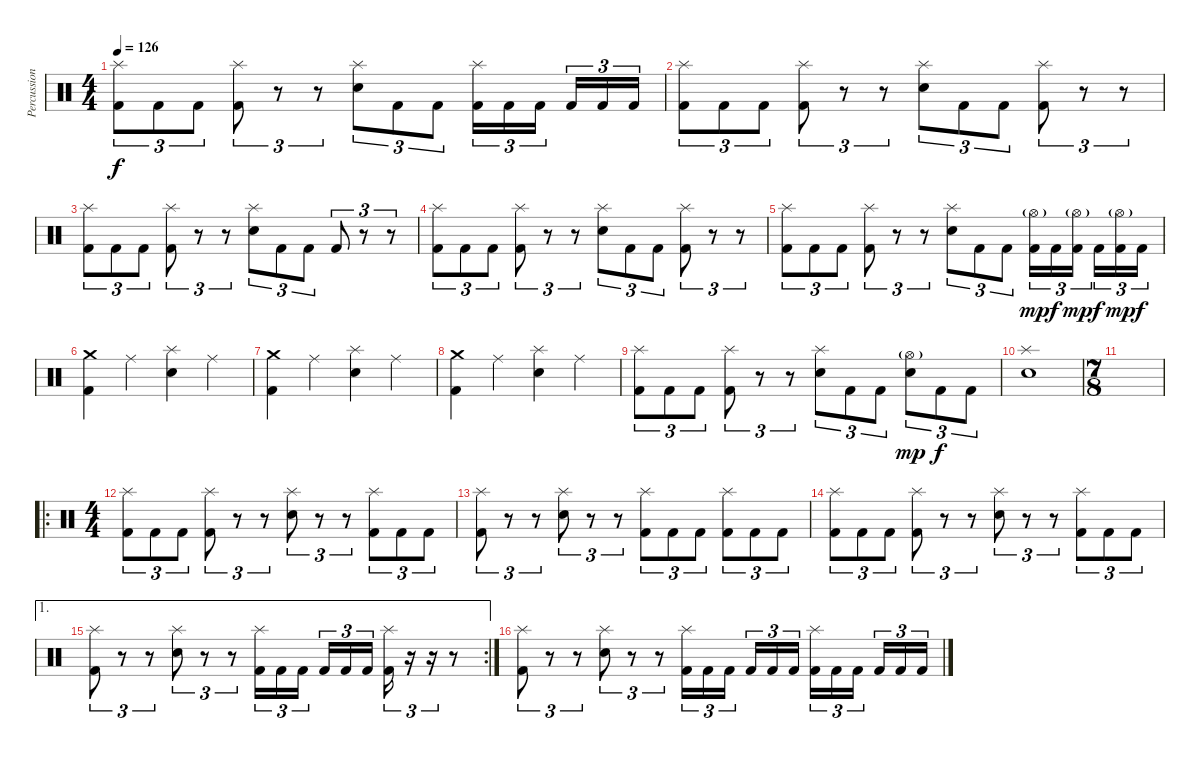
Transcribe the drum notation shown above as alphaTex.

\track ("Percussions" "Percussion") {instrument percussion}
\staff {score}
\articulation defaults
\ts (4 4)
\tempo 126
\clef neutral
\ks c
("Splash (hit)" "Kick (hit) 2").8{tu (3 2) dy f} "Kick (hit) 2".8{tu (3 2)} "Kick (hit) 2".8{tu (3 2)} ("Splash (hit)" "Kick (hit) 2").8{tu (3 2)} r.8{tu (3 2)} r.8{tu (3 2)} ("Splash (hit)" "Electric Snare (hit)").8{tu (3 2)} "Kick (hit) 2".8{tu (3 2)} "Kick (hit) 2".8{tu (3 2)} ("Splash (hit)" "Kick (hit) 2").16{tu (3 2)} "Kick (hit) 2".16{tu (3 2)} "Kick (hit) 2".16{tu (3 2)} "Kick (hit) 2".16{tu (3 2)} "Kick (hit) 2".16{tu (3 2)} "Kick (hit) 2".16{tu (3 2)} |
("Splash (hit)" "Kick (hit) 2").8{tu (3 2)} "Kick (hit) 2".8{tu (3 2)} "Kick (hit) 2".8{tu (3 2)} ("Splash (hit)" "Kick (hit) 2").8{tu (3 2)} r.8{tu (3 2)} r.8{tu (3 2)} ("Splash (hit)" "Electric Snare (hit)").8{tu (3 2)} "Kick (hit) 2".8{tu (3 2)} "Kick (hit) 2".8{tu (3 2)} ("Splash (hit)" "Kick (hit) 2").8{tu (3 2)} r.8{tu (3 2)} r.8{tu (3 2)} |
("Splash (hit)" "Kick (hit) 2").8{tu (3 2)} "Kick (hit) 2".8{tu (3 2)} "Kick (hit) 2".8{tu (3 2)} ("Splash (hit)" "Kick (hit) 2").8{tu (3 2)} r.8{tu (3 2)} r.8{tu (3 2)} ("Splash (hit)" "Electric Snare (hit)").8{tu (3 2)} "Kick (hit) 2".8{tu (3 2)} "Kick (hit) 2".8{tu (3 2)} "Kick (hit) 2".8{tu (3 2)} r.8{tu (3 2)} r.8{tu (3 2)} |
("Splash (hit)" "Kick (hit) 2").8{tu (3 2)} "Kick (hit) 2".8{tu (3 2)} "Kick (hit) 2".8{tu (3 2)} ("Splash (hit)" "Kick (hit) 2").8{tu (3 2)} r.8{tu (3 2)} r.8{tu (3 2)} ("Splash (hit)" "Electric Snare (hit)").8{tu (3 2)} "Kick (hit) 2".8{tu (3 2)} "Kick (hit) 2".8{tu (3 2)} ("Splash (hit)" "Kick (hit) 2").8{tu (3 2)} r.8{tu (3 2)} r.8{tu (3 2)} |
("Splash (hit)" "Kick (hit) 2").8{tu (3 2)} "Kick (hit) 2".8{tu (3 2)} "Kick (hit) 2".8{tu (3 2)} ("Splash (hit)" "Kick (hit) 2").8{tu (3 2)} r.8{tu (3 2)} r.8{tu (3 2)} ("Splash (hit)" "Electric Snare (hit)").8{tu (3 2)} "Kick (hit) 2".8{tu (3 2)} "Kick (hit) 2".8{tu (3 2)} ("Hi-Hat (open)"{g} "Kick (hit) 2").16{tu (3 2) dy mp} "Kick (hit) 2".16{tu (3 2) dy f} ("Hi-Hat (open)"{g} "Kick (hit) 2").16{tu (3 2) dy mp} "Kick (hit) 2".16{tu (3 2) dy f} ("Hi-Hat (open)"{g} "Kick (hit) 2").16{tu (3 2) dy mp} "Kick (hit) 2".16{tu (3 2) dy f} |
("Crash medium (hit)" "Kick (hit) 2").4 "Ride (middle)".4 ("Splash (hit)" "Electric Snare (hit)").4 "Ride (middle)".4 |
("Crash medium (hit)" "Kick (hit) 2").4 "Ride (middle)".4 ("Splash (hit)" "Electric Snare (hit)").4 "Ride (middle)".4 |
("Crash medium (hit)" "Kick (hit) 2").4 "Ride (middle)".4 ("Splash (hit)" "Electric Snare (hit)").4 "Ride (middle)".4 |
("Splash (hit)" "Kick (hit) 2").8{tu (3 2)} "Kick (hit) 2".8{tu (3 2)} "Kick (hit) 2".8{tu (3 2)} ("Splash (hit)" "Kick (hit) 2").8{tu (3 2)} r.8{tu (3 2)} r.8{tu (3 2)} ("Splash (hit)" "Electric Snare (hit)").8{tu (3 2)} "Kick (hit) 2".8{tu (3 2)} "Kick (hit) 2".8{tu (3 2)} ("Hi-Hat (open)"{g} "Electric Snare (hit)").8{tu (3 2) dy mp} "Kick (hit) 2".8{tu (3 2) dy f} "Kick (hit) 2".8{tu (3 2)} |
("Splash (hit)" "Electric Snare (hit)").1 |
\ts (7 8)
|
\ro
\ts (4 4)
("Splash (hit)" "Kick (hit) 2").8{tu (3 2)} "Kick (hit) 2".8{tu (3 2)} "Kick (hit) 2".8{tu (3 2)} ("Splash (hit)" "Kick (hit) 2").8{tu (3 2)} r.8{tu (3 2)} r.8{tu (3 2)} ("Splash (hit)" "Electric Snare (hit)").8{tu (3 2)} r.8{tu (3 2)} r.8{tu (3 2)} ("Splash (hit)" "Kick (hit) 2").8{tu (3 2)} "Kick (hit) 2".8{tu (3 2)} "Kick (hit) 2".8{tu (3 2)} |
("Splash (hit)" "Kick (hit) 2").8{tu (3 2)} r.8{tu (3 2)} r.8{tu (3 2)} ("Splash (hit)" "Electric Snare (hit)").8{tu (3 2)} r.8{tu (3 2)} r.8{tu (3 2)} ("Splash (hit)" "Kick (hit) 2").8{tu (3 2)} "Kick (hit) 2".8{tu (3 2)} "Kick (hit) 2".8{tu (3 2)} ("Splash (hit)" "Kick (hit) 2").8{tu (3 2)} "Kick (hit) 2".8{tu (3 2)} "Kick (hit) 2".8{tu (3 2)} |
("Splash (hit)" "Kick (hit) 2").8{tu (3 2)} "Kick (hit) 2".8{tu (3 2)} "Kick (hit) 2".8{tu (3 2)} ("Splash (hit)" "Kick (hit) 2").8{tu (3 2)} r.8{tu (3 2)} r.8{tu (3 2)} ("Splash (hit)" "Electric Snare (hit)").8{tu (3 2)} r.8{tu (3 2)} r.8{tu (3 2)} ("Splash (hit)" "Kick (hit) 2").8{tu (3 2)} "Kick (hit) 2".8{tu (3 2)} "Kick (hit) 2".8{tu (3 2)} |
\ae 1
\rc 2
("Splash (hit)" "Kick (hit) 2").8{tu (3 2)} r.8{tu (3 2)} r.8{tu (3 2)} ("Splash (hit)" "Electric Snare (hit)").8{tu (3 2)} r.8{tu (3 2)} r.8{tu (3 2)} ("Splash (hit)" "Kick (hit) 2").16{tu (3 2)} "Kick (hit) 2".16{tu (3 2)} "Kick (hit) 2".16{tu (3 2)} "Kick (hit) 2".16{tu (3 2)} "Kick (hit) 2".16{tu (3 2)} "Kick (hit) 2".16{tu (3 2)} ("Splash (hit)" "Kick (hit) 2").16{tu (3 2)} r.16{tu (3 2)} r.16{tu (3 2)} r.8 |
("Splash (hit)" "Kick (hit) 2").8{tu (3 2)} r.8{tu (3 2)} r.8{tu (3 2)} ("Splash (hit)" "Electric Snare (hit)").8{tu (3 2)} r.8{tu (3 2)} r.8{tu (3 2)} ("Splash (hit)" "Kick (hit) 2").16{tu (3 2)} "Kick (hit) 2".16{tu (3 2)} "Kick (hit) 2".16{tu (3 2)} "Kick (hit) 2".16{tu (3 2)} "Kick (hit) 2".16{tu (3 2)} "Kick (hit) 2".16{tu (3 2)} ("Splash (hit)" "Kick (hit) 2").16{tu (3 2)} "Kick (hit) 2".16{tu (3 2)} "Kick (hit) 2".16{tu (3 2)} "Kick (hit) 2".16{tu (3 2)} "Kick (hit) 2".16{tu (3 2)} "Kick (hit) 2".16{tu (3 2)}
